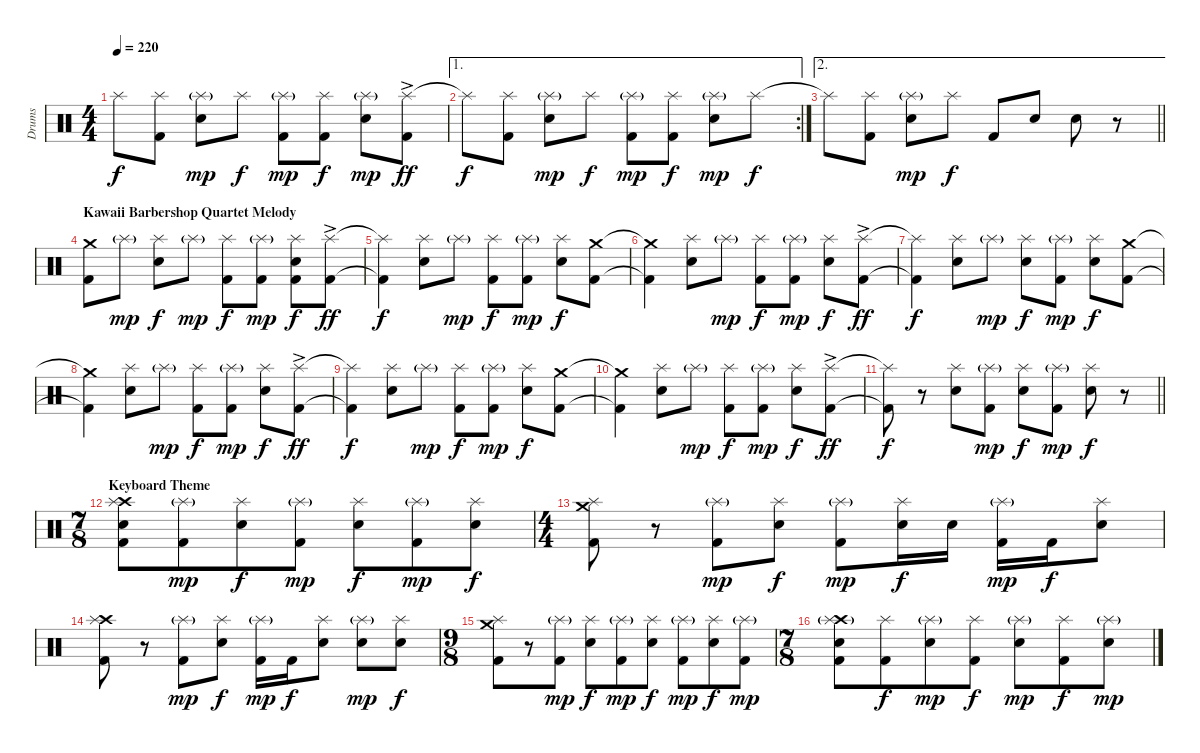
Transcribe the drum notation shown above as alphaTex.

\track ("Drums" "Drums") {instrument percussion}
\staff {score}
\articulation defaults
\ts (4 4)
\tempo 220
\clef neutral
\ks c "Splash (hit)"{t}.8{dy f}
("Splash (hit)" "Kick (hit) 2").8 ("Splash (hit)"{g} "Electric Snare (hit)").8{dy mp} "Splash (hit)".8{dy f} ("Splash (hit)"{g} "Kick (hit) 2").8{dy mp} ("Splash (hit)" "Kick (hit) 2").8{dy f} ("Splash (hit)"{g} "Electric Snare (hit)").8{dy mp} ("Splash (hit)"{ac} "Kick (hit) 2").8{dy ff} |
\ae 1
\rc 2 "Splash (hit)"{t}.8{dy f}
("Splash (hit)" "Kick (hit) 2").8 ("Splash (hit)"{g} "Electric Snare (hit)").8{dy mp} "Splash (hit)".8{dy f} ("Splash (hit)"{g} "Kick (hit) 2").8{dy mp} ("Splash (hit)" "Kick (hit) 2").8{dy f} ("Splash (hit)"{g} "Electric Snare (hit)").8{dy mp} "Splash (hit)".8{dy f} |
\ae 2
\barLineRight lightlight "Splash (hit)"{t}.8
("Splash (hit)" "Kick (hit) 2").8 ("Splash (hit)"{g} "Electric Snare (hit)").8{dy mp} "Splash (hit)".8{dy f} "Kick (hit) 2".8 "Electric Snare (hit)".8 "Electric Snare (hit)".8 r.8 |
\section ("" "Kawaii Barbershop Quartet Melody")
("Crash medium (hit)" "Kick (hit) 2").8 "Splash (hit)"{g}.8{dy mp} ("Splash (hit)" "Electric Snare (hit)").8{dy f} "Splash (hit)"{g}.8{dy mp} ("Splash (hit)" "Kick (hit) 2").8{dy f} ("Splash (hit)"{g} "Kick (hit) 2").8{dy mp} ("Splash (hit)" "Electric Snare (hit)" "Kick (hit) 2").8{dy f} ("Splash (hit)"{ac} "Kick (hit) 2").8{dy ff} |
("Splash (hit)"{t} "Kick (hit) 2"{t}).4{dy f} ("Splash (hit)" "Electric Snare (hit)").8 "Splash (hit)"{g}.8{dy mp} ("Splash (hit)" "Kick (hit) 2").8{dy f} ("Splash (hit)"{g} "Kick (hit) 2").8{dy mp} ("Splash (hit)" "Electric Snare (hit)").8{dy f} ("Crash medium (hit)" "Kick (hit) 2").8 |
("Crash medium (hit)"{t} "Kick (hit) 2"{t}).4 ("Splash (hit)" "Electric Snare (hit)").8 "Splash (hit)"{g}.8{dy mp} ("Splash (hit)" "Kick (hit) 2").8{dy f} ("Splash (hit)"{g} "Kick (hit) 2").8{dy mp} ("Splash (hit)" "Electric Snare (hit)").8{dy f} ("Splash (hit)"{ac} "Kick (hit) 2").8{dy ff} |
("Splash (hit)"{t} "Kick (hit) 2"{t}).4{dy f} ("Splash (hit)" "Electric Snare (hit)").8 "Splash (hit)"{g}.8{dy mp} ("Splash (hit)" "Electric Snare (hit)").8{dy f} ("Splash (hit)"{g} "Kick (hit) 2").8{dy mp} ("Splash (hit)" "Electric Snare (hit)").8{dy f} ("Crash medium (hit)" "Kick (hit) 2").8 |
("Crash medium (hit)"{t} "Kick (hit) 2"{t}).4 ("Splash (hit)" "Electric Snare (hit)").8 "Splash (hit)"{g}.8{dy mp} ("Splash (hit)" "Kick (hit) 2").8{dy f} ("Splash (hit)"{g} "Kick (hit) 2").8{dy mp} ("Splash (hit)" "Electric Snare (hit)").8{dy f} ("Splash (hit)"{ac} "Kick (hit) 2").8{dy ff} |
("Splash (hit)"{t} "Kick (hit) 2"{t}).4{dy f} ("Splash (hit)" "Electric Snare (hit)").8 "Splash (hit)"{g}.8{dy mp} ("Splash (hit)" "Kick (hit) 2").8{dy f} ("Splash (hit)"{g} "Kick (hit) 2").8{dy mp} ("Splash (hit)" "Electric Snare (hit)").8{dy f} ("Crash medium (hit)" "Kick (hit) 2").8 |
("Crash medium (hit)"{t} "Kick (hit) 2"{t}).4 ("Splash (hit)" "Electric Snare (hit)").8 "Splash (hit)"{g}.8{dy mp} ("Splash (hit)" "Kick (hit) 2").8{dy f} ("Splash (hit)"{g} "Kick (hit) 2").8{dy mp} ("Splash (hit)" "Electric Snare (hit)").8{dy f} ("Splash (hit)"{ac} "Kick (hit) 2").8{dy ff} |
\barLineRight lightlight
("Splash (hit)"{t} "Kick (hit) 2"{t}).8{dy f} r.8 ("Splash (hit)" "Electric Snare (hit)").8 ("Splash (hit)"{g} "Kick (hit) 2").8{dy mp} ("Splash (hit)" "Electric Snare (hit)").8{dy f} ("Splash (hit)"{g} "Kick (hit) 2").8{dy mp} ("Splash (hit)" "Electric Snare (hit)").8{dy f} r.8 |
\ts (7 8)
\section ("" "Keyboard Theme")
("Crash high (hit)" "Splash (hit)" "Electric Snare (hit)" "Kick (hit) 2").8 ("Splash (hit)"{g} "Kick (hit) 2").8{dy mp} ("Splash (hit)" "Electric Snare (hit)").8{dy f} ("Splash (hit)"{g} "Kick (hit) 2").8{dy mp} ("Splash (hit)" "Electric Snare (hit)").8{dy f} ("Splash (hit)"{g} "Kick (hit) 2").8{dy mp} ("Splash (hit)" "Electric Snare (hit)").8{dy f} |
\ts (4 4)
("Crash medium (hit)" "Splash (hit)" "Kick (hit) 2").8 r.8 ("Splash (hit)"{g} "Kick (hit) 2").8{dy mp} ("Splash (hit)" "Electric Snare (hit)").8{dy f} ("Splash (hit)"{g} "Kick (hit) 2").8{dy mp} ("Splash (hit)" "Electric Snare (hit)").16{dy f} "Electric Snare (hit)".16 ("Splash (hit)"{g} "Kick (hit) 2").16{dy mp} "Kick (hit) 2".16{dy f} ("Splash (hit)" "Electric Snare (hit)").8 |
("Crash high (hit)" "Splash (hit)" "Kick (hit) 2").8 r.8 ("Splash (hit)"{g} "Kick (hit) 2").8{dy mp} ("Splash (hit)" "Electric Snare (hit)").8{dy f} ("Splash (hit)"{g} "Kick (hit) 2").16{dy mp} "Kick (hit) 2".16{dy f} ("Splash (hit)" "Electric Snare (hit)").8 ("Splash (hit)"{g} "Electric Snare (hit)").8{dy mp} ("Splash (hit)" "Electric Snare (hit)").8{dy f} |
\ts (9 8)
("Crash medium (hit)" "Splash (hit)" "Kick (hit) 2").8 r.8 ("Splash (hit)"{g} "Kick (hit) 2").8{dy mp} ("Splash (hit)" "Electric Snare (hit)").8{dy f} ("Splash (hit)"{g} "Kick (hit) 2").8{dy mp} ("Splash (hit)" "Electric Snare (hit)").8{dy f} ("Splash (hit)"{g} "Kick (hit) 2").8{dy mp} ("Splash (hit)" "Electric Snare (hit)").8{dy f} ("Splash (hit)"{g} "Kick (hit) 2").8{dy mp} |
\ts (7 8)
("Crash high (hit)" "Splash (hit)"{g} "Electric Snare (hit)" "Kick (hit) 2").8 ("Splash (hit)" "Kick (hit) 2").8{dy f} ("Splash (hit)"{g} "Electric Snare (hit)").8{dy mp} ("Splash (hit)" "Kick (hit) 2").8{dy f} ("Splash (hit)"{g} "Electric Snare (hit)").8{dy mp} ("Splash (hit)" "Kick (hit) 2").8{dy f} ("Splash (hit)"{g} "Electric Snare (hit)").8{dy mp}
